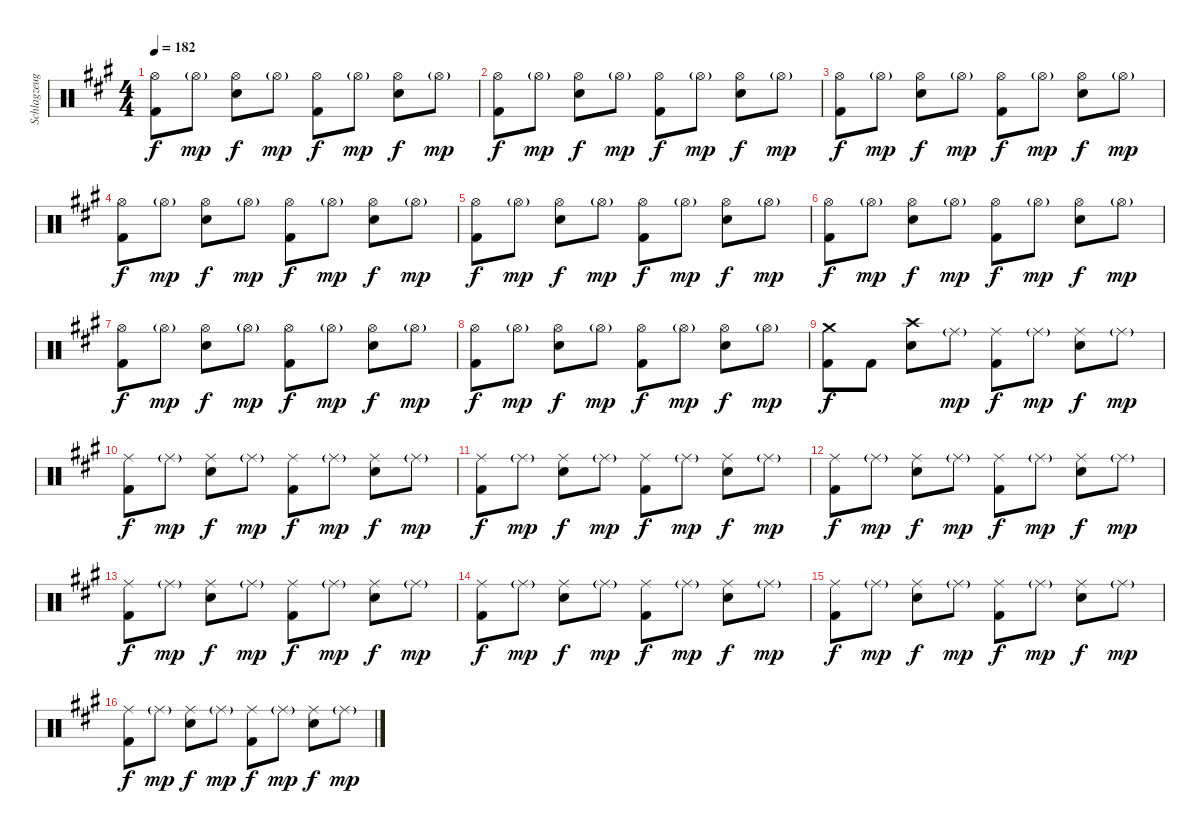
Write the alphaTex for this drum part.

\track ("Schlagzeug" "Schlagzeug") {instrument percussion}
\staff {score}
\articulation defaults
\ts (4 4)
\tempo 182
\clef neutral
\ks a
("Hi-Hat (open)" "Kick (hit) 2").8{dy f} "Hi-Hat (open)"{g}.8{dy mp} ("Hi-Hat (open)" "Snare (hit) 2").8{dy f} "Hi-Hat (open)"{g}.8{dy mp} ("Hi-Hat (open)" "Kick (hit) 2").8{dy f} "Hi-Hat (open)"{g}.8{dy mp} ("Hi-Hat (open)" "Snare (hit) 2").8{dy f} "Hi-Hat (open)"{g}.8{dy mp} |
("Hi-Hat (open)" "Kick (hit) 2").8{dy f} "Hi-Hat (open)"{g}.8{dy mp} ("Hi-Hat (open)" "Snare (hit) 2").8{dy f} "Hi-Hat (open)"{g}.8{dy mp} ("Hi-Hat (open)" "Kick (hit) 2").8{dy f} "Hi-Hat (open)"{g}.8{dy mp} ("Hi-Hat (open)" "Snare (hit) 2").8{dy f} "Hi-Hat (open)"{g}.8{dy mp} |
("Hi-Hat (open)" "Kick (hit) 2").8{dy f} "Hi-Hat (open)"{g}.8{dy mp} ("Hi-Hat (open)" "Snare (hit) 2").8{dy f} "Hi-Hat (open)"{g}.8{dy mp} ("Hi-Hat (open)" "Kick (hit) 2").8{dy f} "Hi-Hat (open)"{g}.8{dy mp} ("Hi-Hat (open)" "Snare (hit) 2").8{dy f} "Hi-Hat (open)"{g}.8{dy mp} |
("Hi-Hat (open)" "Kick (hit) 2").8{dy f} "Hi-Hat (open)"{g}.8{dy mp} ("Hi-Hat (open)" "Snare (hit) 2").8{dy f} "Hi-Hat (open)"{g}.8{dy mp} ("Hi-Hat (open)" "Kick (hit) 2").8{dy f} "Hi-Hat (open)"{g}.8{dy mp} ("Hi-Hat (open)" "Snare (hit) 2").8{dy f} "Hi-Hat (open)"{g}.8{dy mp} |
("Hi-Hat (open)" "Kick (hit) 2").8{dy f} "Hi-Hat (open)"{g}.8{dy mp} ("Hi-Hat (open)" "Snare (hit) 2").8{dy f} "Hi-Hat (open)"{g}.8{dy mp} ("Hi-Hat (open)" "Kick (hit) 2").8{dy f} "Hi-Hat (open)"{g}.8{dy mp} ("Hi-Hat (open)" "Snare (hit) 2").8{dy f} "Hi-Hat (open)"{g}.8{dy mp} |
("Hi-Hat (open)" "Kick (hit) 2").8{dy f} "Hi-Hat (open)"{g}.8{dy mp} ("Hi-Hat (open)" "Snare (hit) 2").8{dy f} "Hi-Hat (open)"{g}.8{dy mp} ("Hi-Hat (open)" "Kick (hit) 2").8{dy f} "Hi-Hat (open)"{g}.8{dy mp} ("Hi-Hat (open)" "Snare (hit) 2").8{dy f} "Hi-Hat (open)"{g}.8{dy mp} |
("Hi-Hat (open)" "Kick (hit) 2").8{dy f} "Hi-Hat (open)"{g}.8{dy mp} ("Hi-Hat (open)" "Snare (hit) 2").8{dy f} "Hi-Hat (open)"{g}.8{dy mp} ("Hi-Hat (open)" "Kick (hit) 2").8{dy f} "Hi-Hat (open)"{g}.8{dy mp} ("Hi-Hat (open)" "Snare (hit) 2").8{dy f} "Hi-Hat (open)"{g}.8{dy mp} |
("Hi-Hat (open)" "Kick (hit) 2").8{dy f} "Hi-Hat (open)"{g}.8{dy mp} ("Hi-Hat (open)" "Snare (hit) 2").8{dy f} "Hi-Hat (open)"{g}.8{dy mp} ("Hi-Hat (open)" "Kick (hit) 2").8{dy f} "Hi-Hat (open)"{g}.8{dy mp} ("Hi-Hat (open)" "Snare (hit) 2").8{dy f} "Hi-Hat (open)"{g}.8{dy mp} |
("Crash medium (hit)" "Kick (hit) 2").8{dy f} "Kick (hit) 2".8 ("Crash high (hit)" "Snare (hit) 2").8 "Ride (middle)"{g}.8{dy mp} ("Ride (middle)" "Kick (hit) 2").8{dy f} "Ride (middle)"{g}.8{dy mp} ("Ride (middle)" "Snare (hit) 2").8{dy f} "Ride (middle)"{g}.8{dy mp} |
("Ride (middle)" "Kick (hit) 2").8{dy f} "Ride (middle)"{g}.8{dy mp} ("Ride (middle)" "Snare (hit) 2").8{dy f} "Ride (middle)"{g}.8{dy mp} ("Ride (middle)" "Kick (hit) 2").8{dy f} "Ride (middle)"{g}.8{dy mp} ("Ride (middle)" "Snare (hit) 2").8{dy f} "Ride (middle)"{g}.8{dy mp} |
("Ride (middle)" "Kick (hit) 2").8{dy f} "Ride (middle)"{g}.8{dy mp} ("Ride (middle)" "Snare (hit) 2").8{dy f} "Ride (middle)"{g}.8{dy mp} ("Ride (middle)" "Kick (hit) 2").8{dy f} "Ride (middle)"{g}.8{dy mp} ("Ride (middle)" "Snare (hit) 2").8{dy f} "Ride (middle)"{g}.8{dy mp} |
("Ride (middle)" "Kick (hit) 2").8{dy f} "Ride (middle)"{g}.8{dy mp} ("Ride (middle)" "Snare (hit) 2").8{dy f} "Ride (middle)"{g}.8{dy mp} ("Ride (middle)" "Kick (hit) 2").8{dy f} "Ride (middle)"{g}.8{dy mp} ("Ride (middle)" "Snare (hit) 2").8{dy f} "Ride (middle)"{g}.8{dy mp} |
("Ride (middle)" "Kick (hit) 2").8{dy f} "Ride (middle)"{g}.8{dy mp} ("Ride (middle)" "Snare (hit) 2").8{dy f} "Ride (middle)"{g}.8{dy mp} ("Ride (middle)" "Kick (hit) 2").8{dy f} "Ride (middle)"{g}.8{dy mp} ("Ride (middle)" "Snare (hit) 2").8{dy f} "Ride (middle)"{g}.8{dy mp} |
("Ride (middle)" "Kick (hit) 2").8{dy f} "Ride (middle)"{g}.8{dy mp} ("Ride (middle)" "Snare (hit) 2").8{dy f} "Ride (middle)"{g}.8{dy mp} ("Ride (middle)" "Kick (hit) 2").8{dy f} "Ride (middle)"{g}.8{dy mp} ("Ride (middle)" "Snare (hit) 2").8{dy f} "Ride (middle)"{g}.8{dy mp} |
("Ride (middle)" "Kick (hit) 2").8{dy f} "Ride (middle)"{g}.8{dy mp} ("Ride (middle)" "Snare (hit) 2").8{dy f} "Ride (middle)"{g}.8{dy mp} ("Ride (middle)" "Kick (hit) 2").8{dy f} "Ride (middle)"{g}.8{dy mp} ("Ride (middle)" "Snare (hit) 2").8{dy f} "Ride (middle)"{g}.8{dy mp} |
("Ride (middle)" "Kick (hit) 2").8{dy f} "Ride (middle)"{g}.8{dy mp} ("Ride (middle)" "Snare (hit) 2").8{dy f} "Ride (middle)"{g}.8{dy mp} ("Ride (middle)" "Kick (hit) 2").8{dy f} "Ride (middle)"{g}.8{dy mp} ("Ride (middle)" "Snare (hit) 2").8{dy f} "Ride (middle)"{g}.8{dy mp}
